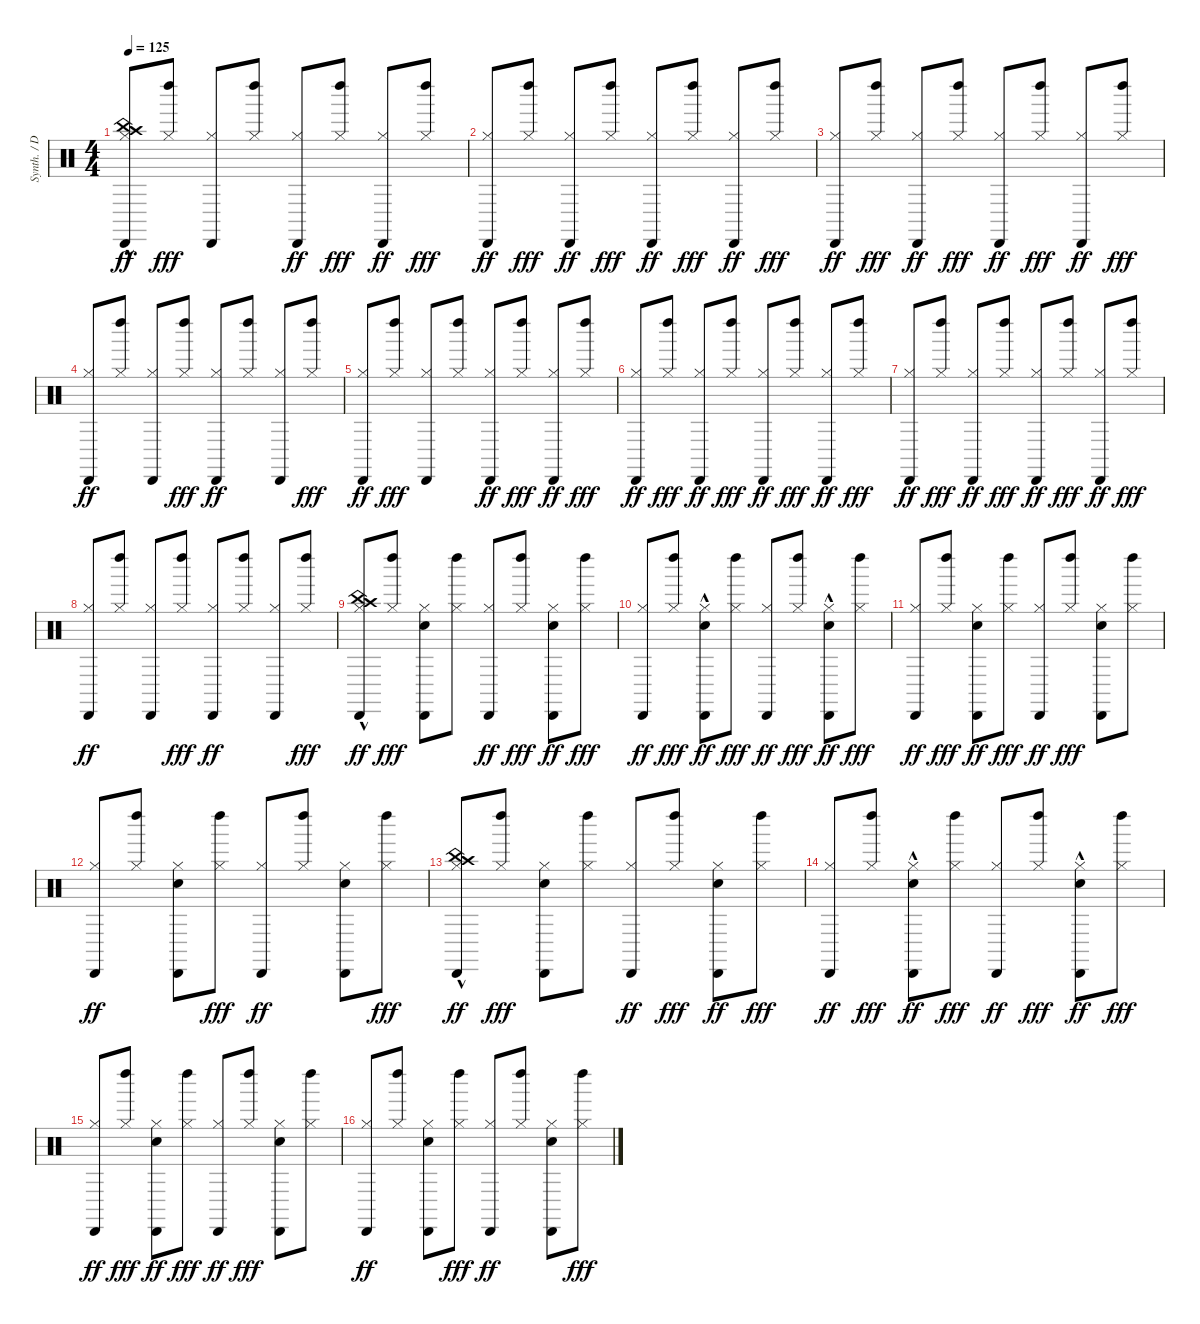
\track ("Synth. / Drums" "Synth. / D") {instrument percussion}
\staff {score}
\articulation defaults
\ts (4 4)
\tempo 125
\clef neutral
\ks c
("Hi-Hat (closed)" "Crash high (hit)" "China (hit)"{hac} "Cabasa (hit)").8{dy ff} ("Hi-Hat (closed)" "Left Maraca (hit)").8{dy fff} ("Hi-Hat (closed)" "Cabasa (hit)").8 ("Hi-Hat (closed)" "Left Maraca (hit)").8 ("Hi-Hat (closed)" "Cabasa (hit)").8{dy ff} ("Hi-Hat (closed)" "Left Maraca (hit)").8{dy fff} ("Hi-Hat (closed)" "Cabasa (hit)").8{dy ff} ("Hi-Hat (closed)" "Left Maraca (hit)").8{dy fff} |
("Hi-Hat (closed)" "Cabasa (hit)").8{dy ff} ("Hi-Hat (closed)" "Left Maraca (hit)").8{dy fff} ("Hi-Hat (closed)" "Cabasa (hit)").8{dy ff} ("Hi-Hat (closed)" "Left Maraca (hit)").8{dy fff} ("Hi-Hat (closed)" "Cabasa (hit)").8{dy ff} ("Hi-Hat (closed)" "Left Maraca (hit)").8{dy fff} ("Hi-Hat (closed)" "Cabasa (hit)").8{dy ff} ("Hi-Hat (closed)" "Left Maraca (hit)").8{dy fff} |
("Hi-Hat (closed)" "Cabasa (hit)").8{dy ff} ("Hi-Hat (closed)" "Left Maraca (hit)").8{dy fff} ("Hi-Hat (closed)" "Cabasa (hit)").8{dy ff} ("Hi-Hat (closed)" "Left Maraca (hit)").8{dy fff} ("Hi-Hat (closed)" "Cabasa (hit)").8{dy ff} ("Hi-Hat (closed)" "Left Maraca (hit)").8{dy fff} ("Hi-Hat (closed)" "Cabasa (hit)").8{dy ff} ("Hi-Hat (closed)" "Left Maraca (hit)").8{dy fff} |
("Hi-Hat (closed)" "Cabasa (hit)").8{dy ff} ("Hi-Hat (closed)" "Left Maraca (hit)").8 ("Hi-Hat (closed)" "Cabasa (hit)").8 ("Hi-Hat (closed)" "Left Maraca (hit)").8{dy fff} ("Hi-Hat (closed)" "Cabasa (hit)").8{dy ff} ("Hi-Hat (closed)" "Left Maraca (hit)").8 ("Hi-Hat (closed)" "Cabasa (hit)").8 ("Hi-Hat (closed)" "Left Maraca (hit)").8{dy fff} |
("Hi-Hat (closed)" "Cabasa (hit)").8{dy ff} ("Hi-Hat (closed)" "Left Maraca (hit)").8{dy fff} ("Hi-Hat (closed)" "Cabasa (hit)").8 ("Hi-Hat (closed)" "Left Maraca (hit)").8 ("Hi-Hat (closed)" "Cabasa (hit)").8{dy ff} ("Hi-Hat (closed)" "Left Maraca (hit)").8{dy fff} ("Hi-Hat (closed)" "Cabasa (hit)").8{dy ff} ("Hi-Hat (closed)" "Left Maraca (hit)").8{dy fff} |
("Hi-Hat (closed)" "Cabasa (hit)").8{dy ff} ("Hi-Hat (closed)" "Left Maraca (hit)").8{dy fff} ("Hi-Hat (closed)" "Cabasa (hit)").8{dy ff} ("Hi-Hat (closed)" "Left Maraca (hit)").8{dy fff} ("Hi-Hat (closed)" "Cabasa (hit)").8{dy ff} ("Hi-Hat (closed)" "Left Maraca (hit)").8{dy fff} ("Hi-Hat (closed)" "Cabasa (hit)").8{dy ff} ("Hi-Hat (closed)" "Left Maraca (hit)").8{dy fff} |
("Hi-Hat (closed)" "Cabasa (hit)").8{dy ff} ("Hi-Hat (closed)" "Left Maraca (hit)").8{dy fff} ("Hi-Hat (closed)" "Cabasa (hit)").8{dy ff} ("Hi-Hat (closed)" "Left Maraca (hit)").8{dy fff} ("Hi-Hat (closed)" "Cabasa (hit)").8{dy ff} ("Hi-Hat (closed)" "Left Maraca (hit)").8{dy fff} ("Hi-Hat (closed)" "Cabasa (hit)").8{dy ff} ("Hi-Hat (closed)" "Left Maraca (hit)").8{dy fff} |
("Hi-Hat (closed)" "Cabasa (hit)").8{dy ff} ("Hi-Hat (closed)" "Left Maraca (hit)").8 ("Hi-Hat (closed)" "Cabasa (hit)").8 ("Hi-Hat (closed)" "Left Maraca (hit)").8{dy fff} ("Hi-Hat (closed)" "Cabasa (hit)").8{dy ff} ("Hi-Hat (closed)" "Left Maraca (hit)").8 ("Hi-Hat (closed)" "Cabasa (hit)").8 ("Hi-Hat (closed)" "Left Maraca (hit)").8{dy fff} |
("Hi-Hat (closed)" "Crash high (hit)" "China (hit)"{hac} "Cabasa (hit)").8{dy ff} ("Hi-Hat (closed)" "Left Maraca (hit)").8{dy fff} ("Hi-Hat (closed)" "Hand Clap (hit)" "Cabasa (hit)").8 ("Hi-Hat (closed)" "Left Maraca (hit)").8 ("Hi-Hat (closed)" "Cabasa (hit)").8{dy ff} ("Hi-Hat (closed)" "Left Maraca (hit)").8{dy fff} ("Hi-Hat (closed)" "Hand Clap (hit)" "Cabasa (hit)").8{dy ff} ("Hi-Hat (closed)" "Left Maraca (hit)").8{dy fff} |
("Hi-Hat (closed)" "Cabasa (hit)").8{dy ff} ("Hi-Hat (closed)" "Left Maraca (hit)").8{dy fff} ("Hi-Hat (closed)" "Hand Clap (hit)"{hac} "Cabasa (hit)").8{dy ff} ("Hi-Hat (closed)" "Left Maraca (hit)").8{dy fff} ("Hi-Hat (closed)" "Cabasa (hit)").8{dy ff} ("Hi-Hat (closed)" "Left Maraca (hit)").8{dy fff} ("Hi-Hat (closed)" "Hand Clap (hit)"{hac} "Cabasa (hit)").8{dy ff} ("Hi-Hat (closed)" "Left Maraca (hit)").8{dy fff} |
("Hi-Hat (closed)" "Cabasa (hit)").8{dy ff} ("Hi-Hat (closed)" "Left Maraca (hit)").8{dy fff} ("Hi-Hat (closed)" "Hand Clap (hit)" "Cabasa (hit)").8{dy ff} ("Hi-Hat (closed)" "Left Maraca (hit)").8{dy fff} ("Hi-Hat (closed)" "Cabasa (hit)").8{dy ff} ("Hi-Hat (closed)" "Left Maraca (hit)").8{dy fff} ("Hi-Hat (closed)" "Hand Clap (hit)" "Cabasa (hit)").8 ("Hi-Hat (closed)" "Left Maraca (hit)").8 |
("Hi-Hat (closed)" "Cabasa (hit)").8{dy ff} ("Hi-Hat (closed)" "Left Maraca (hit)").8 ("Hi-Hat (closed)" "Hand Clap (hit)" "Cabasa (hit)").8 ("Hi-Hat (closed)" "Left Maraca (hit)").8{dy fff} ("Hi-Hat (closed)" "Cabasa (hit)").8{dy ff} ("Hi-Hat (closed)" "Left Maraca (hit)").8 ("Hi-Hat (closed)" "Hand Clap (hit)" "Cabasa (hit)").8 ("Hi-Hat (closed)" "Left Maraca (hit)").8{dy fff} |
("Hi-Hat (closed)" "Crash high (hit)" "China (hit)"{hac} "Cabasa (hit)").8{dy ff} ("Hi-Hat (closed)" "Left Maraca (hit)").8{dy fff} ("Hi-Hat (closed)" "Hand Clap (hit)" "Cabasa (hit)").8 ("Hi-Hat (closed)" "Left Maraca (hit)").8 ("Hi-Hat (closed)" "Cabasa (hit)").8{dy ff} ("Hi-Hat (closed)" "Left Maraca (hit)").8{dy fff} ("Hi-Hat (closed)" "Hand Clap (hit)" "Cabasa (hit)").8{dy ff} ("Hi-Hat (closed)" "Left Maraca (hit)").8{dy fff} |
("Hi-Hat (closed)" "Cabasa (hit)").8{dy ff} ("Hi-Hat (closed)" "Left Maraca (hit)").8{dy fff} ("Hi-Hat (closed)" "Hand Clap (hit)"{hac} "Cabasa (hit)").8{dy ff} ("Hi-Hat (closed)" "Left Maraca (hit)").8{dy fff} ("Hi-Hat (closed)" "Cabasa (hit)").8{dy ff} ("Hi-Hat (closed)" "Left Maraca (hit)").8{dy fff} ("Hi-Hat (closed)" "Hand Clap (hit)"{hac} "Cabasa (hit)").8{dy ff} ("Hi-Hat (closed)" "Left Maraca (hit)").8{dy fff} |
("Hi-Hat (closed)" "Cabasa (hit)").8{dy ff} ("Hi-Hat (closed)" "Left Maraca (hit)").8{dy fff} ("Hi-Hat (closed)" "Hand Clap (hit)" "Cabasa (hit)").8{dy ff} ("Hi-Hat (closed)" "Left Maraca (hit)").8{dy fff} ("Hi-Hat (closed)" "Cabasa (hit)").8{dy ff} ("Hi-Hat (closed)" "Left Maraca (hit)").8{dy fff} ("Hi-Hat (closed)" "Hand Clap (hit)" "Cabasa (hit)").8 ("Hi-Hat (closed)" "Left Maraca (hit)").8 |
("Hi-Hat (closed)" "Cabasa (hit)").8{dy ff} ("Hi-Hat (closed)" "Left Maraca (hit)").8 ("Hi-Hat (closed)" "Hand Clap (hit)" "Cabasa (hit)").8 ("Hi-Hat (closed)" "Left Maraca (hit)").8{dy fff} ("Hi-Hat (closed)" "Cabasa (hit)").8{dy ff} ("Hi-Hat (closed)" "Left Maraca (hit)").8 ("Hi-Hat (closed)" "Hand Clap (hit)" "Cabasa (hit)").8 ("Hi-Hat (closed)" "Left Maraca (hit)").8{dy fff}
